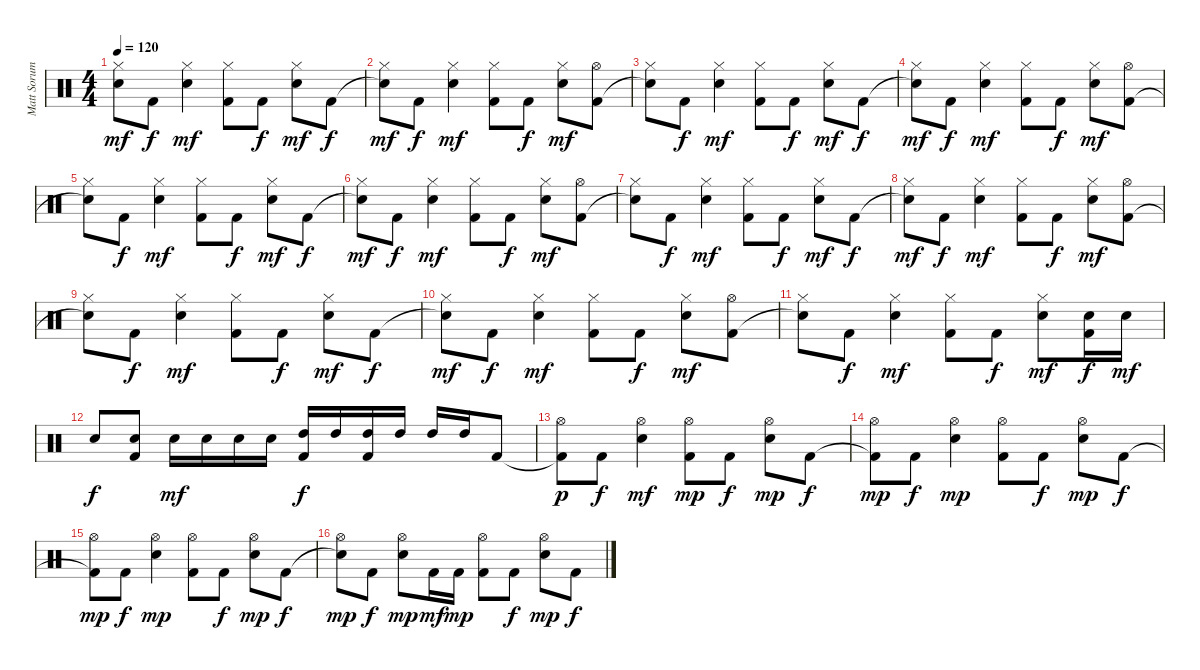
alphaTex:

\track ("Matt Sorum" "Matt Sorum") {instrument percussion}
\staff {score}
\articulation defaults
\ts (4 4)
\tempo 120
\clef neutral
\ks c
("Snare (hit)"{t} "Hi-Hat (closed)").8{dy mf} "Kick (hit) 2".8{dy f} ("Snare (hit) 2" "Hi-Hat (closed)").4{dy mf} ("Kick (hit) 2" "Hi-Hat (closed)").8 "Kick (hit) 2".8{dy f} ("Snare (hit) 2" "Hi-Hat (closed)").8{dy mf} "Kick (hit) 2".8{dy f} |
("Snare (hit)"{t} "Hi-Hat (closed)").8{dy mf} "Kick (hit) 2".8{dy f} ("Snare (hit) 2" "Hi-Hat (closed)").4{dy mf} ("Kick (hit) 2" "Hi-Hat (closed)").8 "Kick (hit) 2".8{dy f} ("Snare (hit) 2" "Hi-Hat (closed)").8{dy mf} ("Kick (hit) 2" "Hi-Hat (open)").8 |
("Snare (hit)"{t} "Hi-Hat (closed)").8 "Kick (hit) 2".8{dy f} ("Snare (hit) 2" "Hi-Hat (closed)").4{dy mf} ("Kick (hit) 2" "Hi-Hat (closed)").8 "Kick (hit) 2".8{dy f} ("Snare (hit) 2" "Hi-Hat (closed)").8{dy mf} "Kick (hit) 2".8{dy f} |
("Snare (hit)"{t} "Hi-Hat (closed)").8{dy mf} "Kick (hit) 2".8{dy f} ("Snare (hit) 2" "Hi-Hat (closed)").4{dy mf} ("Kick (hit) 2" "Hi-Hat (closed)").8 "Kick (hit) 2".8{dy f} ("Snare (hit) 2" "Hi-Hat (closed)").8{dy mf} ("Kick (hit) 2" "Hi-Hat (open)").8 |
("Snare (hit)"{t} "Hi-Hat (closed)").8 "Kick (hit) 2".8{dy f} ("Snare (hit) 2" "Hi-Hat (closed)").4{dy mf} ("Kick (hit) 2" "Hi-Hat (closed)").8 "Kick (hit) 2".8{dy f} ("Snare (hit) 2" "Hi-Hat (closed)").8{dy mf} "Kick (hit) 2".8{dy f} |
("Snare (hit)"{t} "Hi-Hat (closed)").8{dy mf} "Kick (hit) 2".8{dy f} ("Snare (hit) 2" "Hi-Hat (closed)").4{dy mf} ("Kick (hit) 2" "Hi-Hat (closed)").8 "Kick (hit) 2".8{dy f} ("Snare (hit) 2" "Hi-Hat (closed)").8{dy mf} ("Kick (hit) 2" "Hi-Hat (open)").8 |
("Snare (hit)"{t} "Hi-Hat (closed)").8 "Kick (hit) 2".8{dy f} ("Snare (hit) 2" "Hi-Hat (closed)").4{dy mf} ("Kick (hit) 2" "Hi-Hat (closed)").8 "Kick (hit) 2".8{dy f} ("Snare (hit) 2" "Hi-Hat (closed)").8{dy mf} "Kick (hit) 2".8{dy f} |
("Snare (hit)"{t} "Hi-Hat (closed)").8{dy mf} "Kick (hit) 2".8{dy f} ("Snare (hit) 2" "Hi-Hat (closed)").4{dy mf} ("Kick (hit) 2" "Hi-Hat (closed)").8 "Kick (hit) 2".8{dy f} ("Snare (hit) 2" "Hi-Hat (closed)").8{dy mf} ("Kick (hit) 2" "Hi-Hat (open)").8 |
("Snare (hit)"{t} "Hi-Hat (closed)").8 "Kick (hit) 2".8{dy f} ("Snare (hit) 2" "Hi-Hat (closed)").4{dy mf} ("Kick (hit) 2" "Hi-Hat (closed)").8 "Kick (hit) 2".8{dy f} ("Snare (hit) 2" "Hi-Hat (closed)").8{dy mf} "Kick (hit) 2".8{dy f} |
("Snare (hit)"{t} "Hi-Hat (closed)").8{dy mf} "Kick (hit) 2".8{dy f} ("Snare (hit) 2" "Hi-Hat (closed)").4{dy mf} ("Kick (hit) 2" "Hi-Hat (closed)").8 "Kick (hit) 2".8{dy f} ("Snare (hit) 2" "Hi-Hat (closed)").8{dy mf} ("Kick (hit) 2" "Hi-Hat (open)").8 |
("Snare (hit)"{t} "Hi-Hat (closed)").8 "Kick (hit) 2".8{dy f} ("Snare (hit) 2" "Hi-Hat (closed)").4{dy mf} ("Kick (hit) 2" "Hi-Hat (closed)").8 "Kick (hit) 2".8{dy f} ("Snare (hit) 2" "Hi-Hat (closed)").8{dy mf} ("Kick (hit) 2" "Snare (hit) 2").16{dy f} "Snare (hit) 2".16{dy mf} |
"Snare (hit) 2".8{dy f} ("Kick (hit) 2" "Snare (hit) 2").8 "Snare (hit) 2".16{dy mf} "Snare (hit) 2".16 "Snare (hit) 2".16 "Snare (hit) 2".16 ("Kick (hit) 2" "High Tom (hit)").16{dy f} "High Tom (hit)".16 ("Kick (hit) 2" "High Tom (hit)").16 "High Tom (hit)".16 "High Tom (hit)".16 "High Tom (hit)".16 "Kick (hit) 2".8 |
("Kick (hit) 2"{t} "Hi-Hat (open)").8{dy p} "Kick (hit) 2".8{dy f} ("Snare (hit) 2" "Hi-Hat (open)").4{dy mf} ("Kick (hit) 2" "Hi-Hat (open)").8{dy mp} "Kick (hit) 2".8{dy f} ("Snare (hit) 2" "Hi-Hat (open)").8{dy mp} "Kick (hit) 2".8{dy f} |
("Kick (hit) 2"{t} "Hi-Hat (open)").8{dy mp} "Kick (hit) 2".8{dy f} ("Snare (hit) 2" "Hi-Hat (open)").4{dy mp} ("Kick (hit) 2" "Hi-Hat (open)").8 "Kick (hit) 2".8{dy f} ("Snare (hit) 2" "Hi-Hat (open)").8{dy mp} "Kick (hit) 2".8{dy f} |
("Kick (hit) 2"{t} "Hi-Hat (open)").8{dy mp} "Kick (hit) 2".8{dy f} ("Snare (hit) 2" "Hi-Hat (open)").4{dy mp} ("Kick (hit) 2" "Hi-Hat (open)").8 "Kick (hit) 2".8{dy f} ("Snare (hit) 2" "Hi-Hat (open)").8{dy mp} "Kick (hit) 2".8{dy f} |
("Snare (hit)"{t} "Hi-Hat (open)").8{dy mp} "Kick (hit) 2".8{dy f} ("Snare (hit) 2" "Hi-Hat (open)").8{dy mp} "Kick (hit) 2".16{dy mf} "Kick (hit) 2".16{dy mp} ("Kick (hit) 2" "Hi-Hat (open)").8 "Kick (hit) 2".8{dy f} ("Snare (hit) 2" "Hi-Hat (open)").8{dy mp} "Kick (hit) 2".8{dy f}
